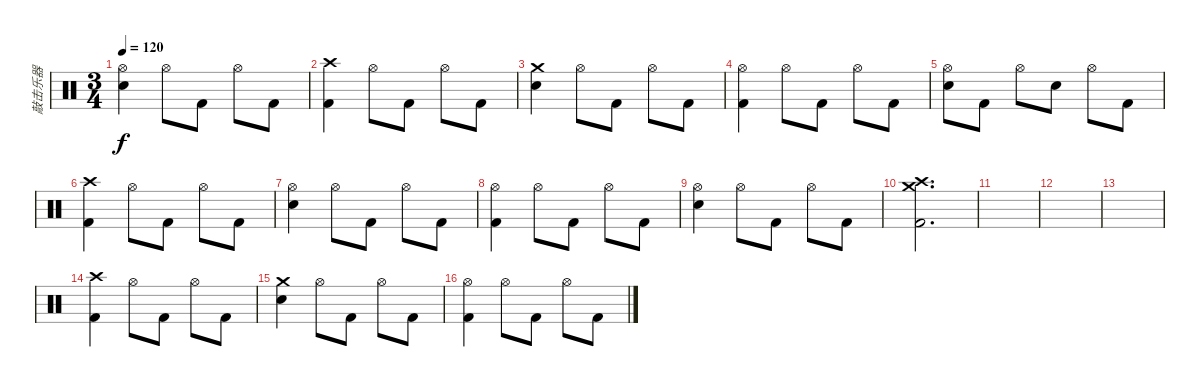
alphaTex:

\track ("敲击乐器" "敲击乐器") {instrument percussion}
\staff {score}
\articulation defaults
\ts (3 4)
\tempo 120
\clef neutral
\ks c
("Hi-Hat (open)" "Snare (hit) 2").4{dy f} "Hi-Hat (open)".8 "Kick (hit) 2".8 "Hi-Hat (open)".8 "Kick (hit) 2".8 |
("Crash high (hit)" "Kick (hit) 2").4 "Hi-Hat (open)".8 "Kick (hit) 2".8 "Hi-Hat (open)".8 "Kick (hit) 2".8 |
("Crash medium (hit)" "Snare (hit) 2").4 "Hi-Hat (open)".8 "Kick (hit) 2".8 "Hi-Hat (open)".8 "Kick (hit) 2".8 |
("Hi-Hat (open)" "Kick (hit) 2").4 "Hi-Hat (open)".8 "Kick (hit) 2".8 "Hi-Hat (open)".8 "Kick (hit) 2".8 |
("Hi-Hat (open)" "Snare (hit) 2").8 "Kick (hit) 2".8 "Hi-Hat (open)".8 "Snare (hit) 2".8 "Hi-Hat (open)".8 "Kick (hit) 2".8 |
("Crash high (hit)" "Kick (hit) 2").4 "Hi-Hat (open)".8 "Kick (hit) 2".8 "Hi-Hat (open)".8 "Kick (hit) 2".8 |
("Hi-Hat (open)" "Snare (hit) 2").4 "Hi-Hat (open)".8 "Kick (hit) 2".8 "Hi-Hat (open)".8 "Kick (hit) 2".8 |
("Hi-Hat (open)" "Kick (hit) 2").4 "Hi-Hat (open)".8 "Kick (hit) 2".8 "Hi-Hat (open)".8 "Kick (hit) 2".8 |
("Hi-Hat (open)" "Snare (hit) 2").4 "Hi-Hat (open)".8 "Kick (hit) 2".8 "Hi-Hat (open)".8 "Kick (hit) 2".8 |
("Crash medium (hit)" "Crash high (hit)" "Kick (hit) 2").2{d} |
|
|
|
("Crash high (hit)" "Kick (hit) 2").4 "Hi-Hat (open)".8 "Kick (hit) 2".8 "Hi-Hat (open)".8 "Kick (hit) 2".8 |
("Crash medium (hit)" "Snare (hit) 2").4 "Hi-Hat (open)".8 "Kick (hit) 2".8 "Hi-Hat (open)".8 "Kick (hit) 2".8 |
("Hi-Hat (open)" "Kick (hit) 2").4 "Hi-Hat (open)".8 "Kick (hit) 2".8 "Hi-Hat (open)".8 "Kick (hit) 2".8
